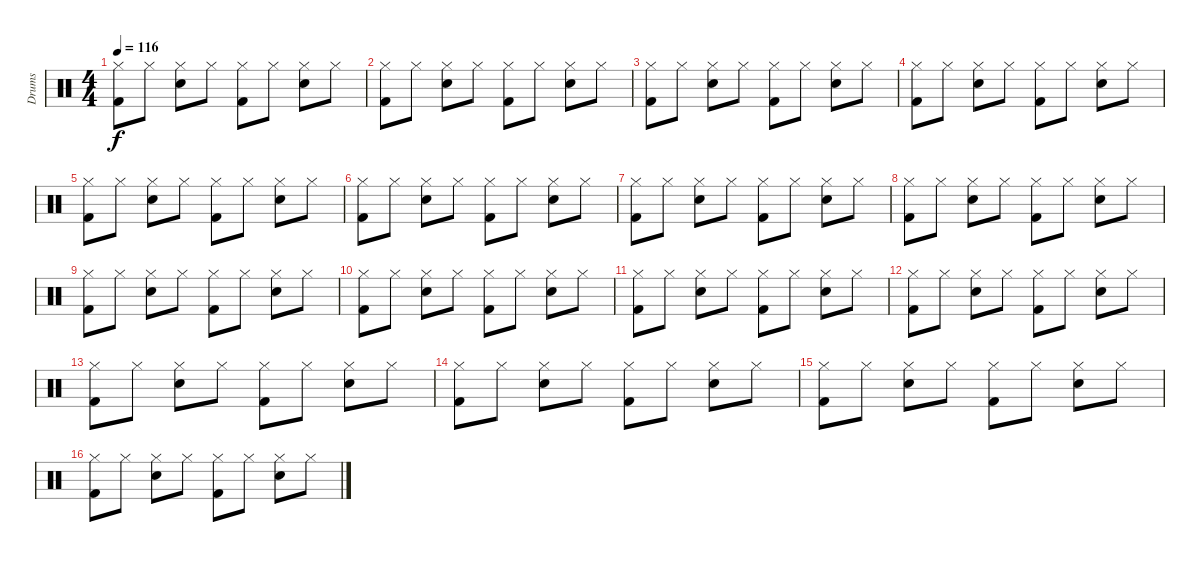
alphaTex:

\track ("Drums" "Drums") {instrument percussion}
\staff {score}
\articulation defaults
\ts (4 4)
\tempo 116
\clef neutral
\ks c
("Hi-Hat (closed)" "Kick (hit) 2").8{dy f} "Hi-Hat (closed)".8 ("Hi-Hat (closed)" "Snare (hit) 2").8 "Hi-Hat (closed)".8 ("Hi-Hat (closed)" "Kick (hit) 2").8 "Hi-Hat (closed)".8 ("Hi-Hat (closed)" "Snare (hit) 2").8 "Hi-Hat (closed)".8 |
("Hi-Hat (closed)" "Kick (hit) 2").8 "Hi-Hat (closed)".8 ("Hi-Hat (closed)" "Snare (hit) 2").8 "Hi-Hat (closed)".8 ("Hi-Hat (closed)" "Kick (hit) 2").8 "Hi-Hat (closed)".8 ("Hi-Hat (closed)" "Snare (hit) 2").8 "Hi-Hat (closed)".8 |
("Hi-Hat (closed)" "Kick (hit) 2").8 "Hi-Hat (closed)".8 ("Hi-Hat (closed)" "Snare (hit) 2").8 "Hi-Hat (closed)".8 ("Hi-Hat (closed)" "Kick (hit) 2").8 "Hi-Hat (closed)".8 ("Hi-Hat (closed)" "Snare (hit) 2").8 "Hi-Hat (closed)".8 |
("Hi-Hat (closed)" "Kick (hit) 2").8 "Hi-Hat (closed)".8 ("Hi-Hat (closed)" "Snare (hit) 2").8 "Hi-Hat (closed)".8 ("Hi-Hat (closed)" "Kick (hit) 2").8 "Hi-Hat (closed)".8 ("Hi-Hat (closed)" "Snare (hit) 2").8 "Hi-Hat (closed)".8 |
("Hi-Hat (closed)" "Kick (hit) 2").8 "Hi-Hat (closed)".8 ("Hi-Hat (closed)" "Snare (hit) 2").8 "Hi-Hat (closed)".8 ("Hi-Hat (closed)" "Kick (hit) 2").8 "Hi-Hat (closed)".8 ("Hi-Hat (closed)" "Snare (hit) 2").8 "Hi-Hat (closed)".8 |
("Hi-Hat (closed)" "Kick (hit) 2").8 "Hi-Hat (closed)".8 ("Hi-Hat (closed)" "Snare (hit) 2").8 "Hi-Hat (closed)".8 ("Hi-Hat (closed)" "Kick (hit) 2").8 "Hi-Hat (closed)".8 ("Hi-Hat (closed)" "Snare (hit) 2").8 "Hi-Hat (closed)".8 |
("Hi-Hat (closed)" "Kick (hit) 2").8 "Hi-Hat (closed)".8 ("Hi-Hat (closed)" "Snare (hit) 2").8 "Hi-Hat (closed)".8 ("Hi-Hat (closed)" "Kick (hit) 2").8 "Hi-Hat (closed)".8 ("Hi-Hat (closed)" "Snare (hit) 2").8 "Hi-Hat (closed)".8 |
("Hi-Hat (closed)" "Kick (hit) 2").8 "Hi-Hat (closed)".8 ("Hi-Hat (closed)" "Snare (hit) 2").8 "Hi-Hat (closed)".8 ("Hi-Hat (closed)" "Kick (hit) 2").8 "Hi-Hat (closed)".8 ("Hi-Hat (closed)" "Snare (hit) 2").8 "Hi-Hat (closed)".8 |
("Hi-Hat (closed)" "Kick (hit) 2").8 "Hi-Hat (closed)".8 ("Hi-Hat (closed)" "Snare (hit) 2").8 "Hi-Hat (closed)".8 ("Hi-Hat (closed)" "Kick (hit) 2").8 "Hi-Hat (closed)".8 ("Hi-Hat (closed)" "Snare (hit) 2").8 "Hi-Hat (closed)".8 |
("Hi-Hat (closed)" "Kick (hit) 2").8 "Hi-Hat (closed)".8 ("Hi-Hat (closed)" "Snare (hit) 2").8 "Hi-Hat (closed)".8 ("Hi-Hat (closed)" "Kick (hit) 2").8 "Hi-Hat (closed)".8 ("Hi-Hat (closed)" "Snare (hit) 2").8 "Hi-Hat (closed)".8 |
("Hi-Hat (closed)" "Kick (hit) 2").8 "Hi-Hat (closed)".8 ("Hi-Hat (closed)" "Snare (hit) 2").8 "Hi-Hat (closed)".8 ("Hi-Hat (closed)" "Kick (hit) 2").8 "Hi-Hat (closed)".8 ("Hi-Hat (closed)" "Snare (hit) 2").8 "Hi-Hat (closed)".8 |
("Hi-Hat (closed)" "Kick (hit) 2").8 "Hi-Hat (closed)".8 ("Hi-Hat (closed)" "Snare (hit) 2").8 "Hi-Hat (closed)".8 ("Hi-Hat (closed)" "Kick (hit) 2").8 "Hi-Hat (closed)".8 ("Hi-Hat (closed)" "Snare (hit) 2").8 "Hi-Hat (closed)".8 |
("Hi-Hat (closed)" "Kick (hit) 2").8 "Hi-Hat (closed)".8 ("Hi-Hat (closed)" "Snare (hit) 2").8 "Hi-Hat (closed)".8 ("Hi-Hat (closed)" "Kick (hit) 2").8 "Hi-Hat (closed)".8 ("Hi-Hat (closed)" "Snare (hit) 2").8 "Hi-Hat (closed)".8 |
("Hi-Hat (closed)" "Kick (hit) 2").8 "Hi-Hat (closed)".8 ("Hi-Hat (closed)" "Snare (hit) 2").8 "Hi-Hat (closed)".8 ("Hi-Hat (closed)" "Kick (hit) 2").8 "Hi-Hat (closed)".8 ("Hi-Hat (closed)" "Snare (hit) 2").8 "Hi-Hat (closed)".8 |
("Hi-Hat (closed)" "Kick (hit) 2").8 "Hi-Hat (closed)".8 ("Hi-Hat (closed)" "Snare (hit) 2").8 "Hi-Hat (closed)".8 ("Hi-Hat (closed)" "Kick (hit) 2").8 "Hi-Hat (closed)".8 ("Hi-Hat (closed)" "Snare (hit) 2").8 "Hi-Hat (closed)".8 |
("Hi-Hat (closed)" "Kick (hit) 2").8 "Hi-Hat (closed)".8 ("Hi-Hat (closed)" "Snare (hit) 2").8 "Hi-Hat (closed)".8 ("Hi-Hat (closed)" "Kick (hit) 2").8 "Hi-Hat (closed)".8 ("Hi-Hat (closed)" "Snare (hit) 2").8 "Hi-Hat (closed)".8
